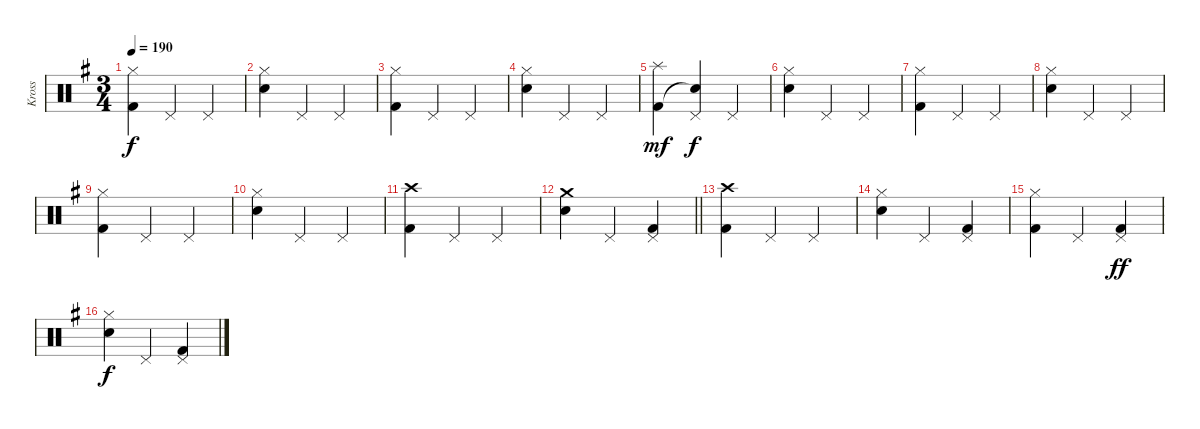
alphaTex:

\track ("Kross" "Kross") {instrument percussion}
\staff {score}
\articulation defaults
\ts (3 4)
\tempo 190
\clef neutral
\ks g
("Hi-Hat (closed)" "Kick (hit) 2").4{dy f} "Pedal Hi-Hat (hit)".4 "Pedal Hi-Hat (hit)".4 |
("Hi-Hat (closed)" "Snare (hit) 2").4 "Pedal Hi-Hat (hit)".4 "Pedal Hi-Hat (hit)".4 |
("Hi-Hat (closed)" "Kick (hit) 2").4 "Pedal Hi-Hat (hit)".4 "Pedal Hi-Hat (hit)".4 |
("Hi-Hat (closed)" "Snare (hit) 2").4 "Pedal Hi-Hat (hit)".4 "Pedal Hi-Hat (hit)".4 |
("Splash (hit)" "Kick (hit) 2").4{dy mf} ("Pedal Hi-Hat (hit)" "Snare (hit)"{t}).4{dy f} "Pedal Hi-Hat (hit)".4 |
("Hi-Hat (closed)" "Snare (hit) 2").4 "Pedal Hi-Hat (hit)".4 "Pedal Hi-Hat (hit)".4 |
("Hi-Hat (closed)" "Kick (hit) 2").4 "Pedal Hi-Hat (hit)".4 "Pedal Hi-Hat (hit)".4 |
("Hi-Hat (closed)" "Snare (hit) 2").4 "Pedal Hi-Hat (hit)".4 "Pedal Hi-Hat (hit)".4 |
("Hi-Hat (closed)" "Kick (hit) 2").4 "Pedal Hi-Hat (hit)".4 "Pedal Hi-Hat (hit)".4 |
("Hi-Hat (closed)" "Snare (hit) 2").4 "Pedal Hi-Hat (hit)".4 "Pedal Hi-Hat (hit)".4 |
("Crash high (hit)" "Kick (hit) 2").4 "Pedal Hi-Hat (hit)".4 "Pedal Hi-Hat (hit)".4 |
\barLineRight lightlight
("Crash medium (hit)" "Snare (hit) 2").4 "Pedal Hi-Hat (hit)".4 ("Pedal Hi-Hat (hit)" "Kick (hit) 2").4 |
("Crash high (hit)" "Kick (hit) 2").4 "Pedal Hi-Hat (hit)".4 "Pedal Hi-Hat (hit)".4 |
("Hi-Hat (closed)" "Snare (hit) 2").4 "Pedal Hi-Hat (hit)".4 ("Pedal Hi-Hat (hit)" "Kick (hit) 2").4 |
("Hi-Hat (closed)" "Kick (hit) 2").4 "Pedal Hi-Hat (hit)".4 ("Pedal Hi-Hat (hit)" "Kick (hit) 2").4{dy ff} |
("Hi-Hat (closed)" "Snare (hit) 2").4{dy f} "Pedal Hi-Hat (hit)".4 ("Pedal Hi-Hat (hit)" "Kick (hit) 2").4
